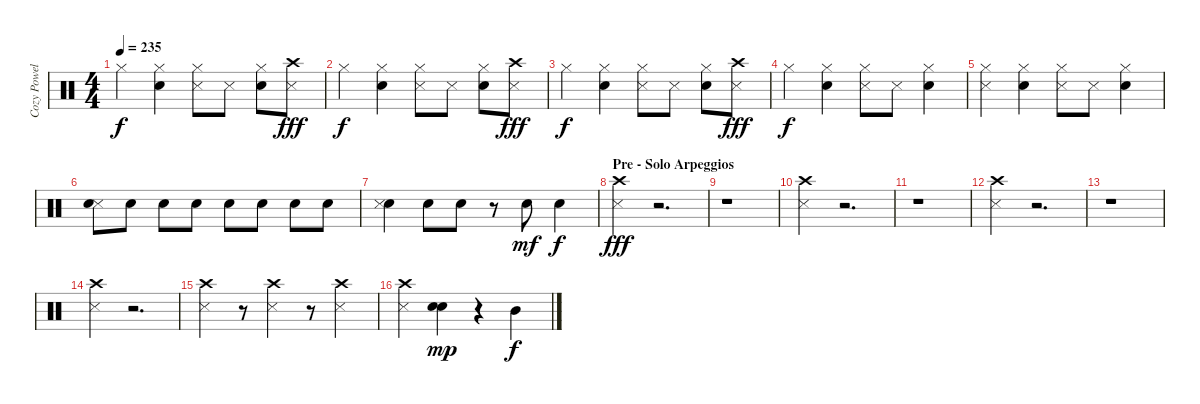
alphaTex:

\track ("Cozy Powell" "Cozy Powel") {instrument percussion}
\staff {score}
\articulation defaults
\ts (4 4)
\tempo 235
\clef neutral
\ks c "Hi-Hat (closed)".4{dy f}
("Hi-Hat (closed)" "Electric Snare (hit)").4 ("Metronome (hit)" "Hi-Hat (closed)").8 "Metronome (hit)".8 ("Hi-Hat (closed)" "Electric Snare (hit)").8 ("Crash high (hit)" "Metronome (hit)").8{dy fff} |
"Hi-Hat (closed)".4{dy f} ("Electric Snare (hit)" "Hi-Hat (closed)").4 ("Hi-Hat (closed)" "Metronome (hit)").8 "Metronome (hit)".8 ("Electric Snare (hit)" "Hi-Hat (closed)").8 ("Metronome (hit)" "Crash high (hit)").8{dy fff} |
"Hi-Hat (closed)".4{dy f} ("Electric Snare (hit)" "Hi-Hat (closed)").4 ("Hi-Hat (closed)" "Metronome (hit)").8 "Metronome (hit)".8 ("Electric Snare (hit)" "Hi-Hat (closed)").8 ("Metronome (hit)" "Crash high (hit)").8{dy fff} |
"Hi-Hat (closed)".4{dy f} ("Electric Snare (hit)" "Hi-Hat (closed)").4 ("Hi-Hat (closed)" "Metronome (hit)").8 "Metronome (hit)".8 ("Hi-Hat (closed)" "Electric Snare (hit)").4 |
("Hi-Hat (closed)" "Metronome (hit)").4 ("Electric Snare (hit)" "Hi-Hat (closed)").4 ("Hi-Hat (closed)" "Metronome (hit)").8 "Metronome (hit)".8 ("Electric Snare (hit)" "Hi-Hat (closed)").4 |
("Metronome (hit)" "Electric Snare (hit)").8 "Electric Snare (hit)".8 "Electric Snare (hit)".8 "Electric Snare (hit)".8 "Electric Snare (hit)".8 "Electric Snare (hit)".8 "Electric Snare (hit)".8 "Electric Snare (hit)".8 |
("Electric Snare (hit)" "Metronome (hit)").4 "Electric Snare (hit)".8 "Electric Snare (hit)".8 r.8 "Electric Snare (hit)".8{dy mf} "Electric Snare (hit)".4{dy f} |
\section ("" "Pre - Solo Arpeggios")
("Crash high (hit)" "Metronome (hit)").4{dy fff} r.2{d} |
r.1 |
("Metronome (hit)" "Crash high (hit)").4 r.2{d} |
r.1 |
("Crash high (hit)" "Metronome (hit)").4 r.2{d} |
r.1 |
("Metronome (hit)" "Crash high (hit)").4 r.2{d} |
("Metronome (hit)" "Crash high (hit)").4 r.8 ("Metronome (hit)" "Crash high (hit)").4 r.8 ("Metronome (hit)" "Crash high (hit)").4 |
("Crash high (hit)" "Metronome (hit)").4 ("Electric Snare (hit)" "Electric Snare (hit)").4{dy mp} r.4 "Mid Tom (hit)".4{dy f}
